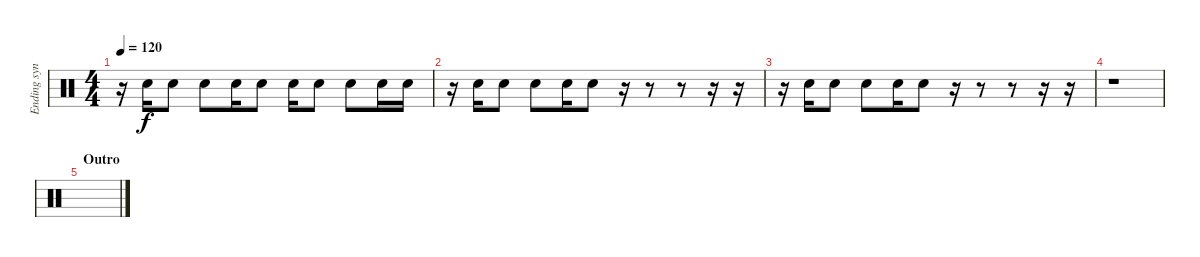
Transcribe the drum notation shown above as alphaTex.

\track ("Ending synth hand claps" "Ending syn") {instrument percussion}
\staff {score}
\articulation defaults
\ts (4 4)
\tempo 120
\clef neutral
\ks c
r.16{dy f} "Hand Clap (hit)".16 "Hand Clap (hit)".8 "Hand Clap (hit)".8 "Hand Clap (hit)".16 "Hand Clap (hit)".8 "Hand Clap (hit)".16 "Hand Clap (hit)".8 "Hand Clap (hit)".8 "Hand Clap (hit)".16 "Hand Clap (hit)".16 |
r.16 "Hand Clap (hit)".16 "Hand Clap (hit)".8 "Hand Clap (hit)".8 "Hand Clap (hit)".16 "Hand Clap (hit)".8 r.16 r.8 r.8 r.16 r.16 |
r.16 "Hand Clap (hit)".16 "Hand Clap (hit)".8 "Hand Clap (hit)".8 "Hand Clap (hit)".16 "Hand Clap (hit)".8 r.16 r.8 r.8 r.16 r.16 |
r.1 |
\section ("" "Outro")
